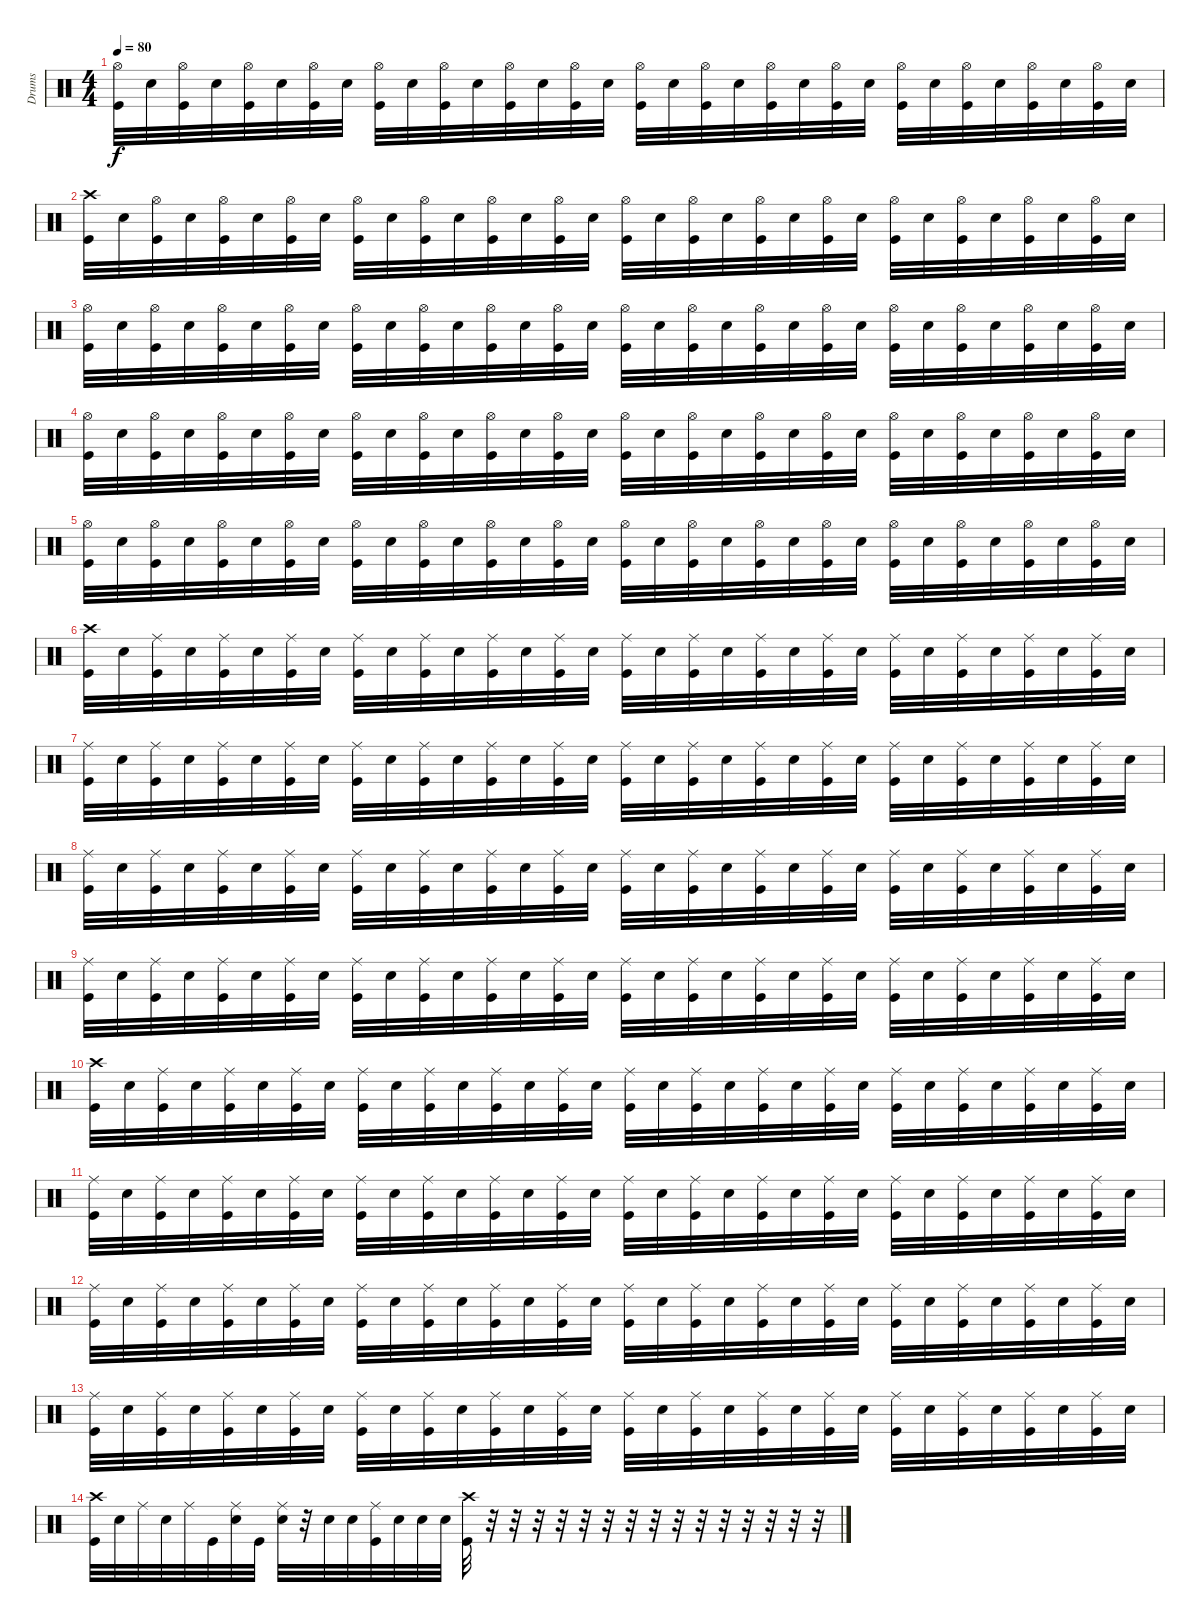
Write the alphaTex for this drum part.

\track ("Drums" "Drums") {instrument percussion}
\staff {score}
\articulation defaults
\ts (4 4)
\tempo 80
\clef neutral
\ks c
("Hi-Hat (open)" "Kick (hit)").32{dy f} "Snare (hit) 2".32 ("Hi-Hat (open)" "Kick (hit)").32 "Snare (hit) 2".32 ("Hi-Hat (open)" "Kick (hit)").32 "Snare (hit) 2".32 ("Hi-Hat (open)" "Kick (hit)").32 "Snare (hit) 2".32 ("Hi-Hat (open)" "Kick (hit)").32 "Snare (hit) 2".32 ("Hi-Hat (open)" "Kick (hit)").32 "Snare (hit) 2".32 ("Hi-Hat (open)" "Kick (hit)").32 "Snare (hit) 2".32 ("Hi-Hat (open)" "Kick (hit)").32 "Snare (hit) 2".32 ("Hi-Hat (open)" "Kick (hit)").32 "Snare (hit) 2".32 ("Hi-Hat (open)" "Kick (hit)").32 "Snare (hit) 2".32 ("Hi-Hat (open)" "Kick (hit)").32 "Snare (hit) 2".32 ("Hi-Hat (open)" "Kick (hit)").32 "Snare (hit) 2".32 ("Hi-Hat (open)" "Kick (hit)").32 "Snare (hit) 2".32 ("Hi-Hat (open)" "Kick (hit)").32 "Snare (hit) 2".32 ("Hi-Hat (open)" "Kick (hit)").32 "Snare (hit) 2".32 ("Hi-Hat (open)" "Kick (hit)").32 "Snare (hit) 2".32 |
("Crash high (hit)" "Kick (hit)").32 "Snare (hit) 2".32 ("Hi-Hat (open)" "Kick (hit)").32 "Snare (hit) 2".32 ("Hi-Hat (open)" "Kick (hit)").32 "Snare (hit) 2".32 ("Hi-Hat (open)" "Kick (hit)").32 "Snare (hit) 2".32 ("Hi-Hat (open)" "Kick (hit)").32 "Snare (hit) 2".32 ("Hi-Hat (open)" "Kick (hit)").32 "Snare (hit) 2".32 ("Hi-Hat (open)" "Kick (hit)").32 "Snare (hit) 2".32 ("Hi-Hat (open)" "Kick (hit)").32 "Snare (hit) 2".32 ("Hi-Hat (open)" "Kick (hit)").32 "Snare (hit) 2".32 ("Hi-Hat (open)" "Kick (hit)").32 "Snare (hit) 2".32 ("Hi-Hat (open)" "Kick (hit)").32 "Snare (hit) 2".32 ("Hi-Hat (open)" "Kick (hit)").32 "Snare (hit) 2".32 ("Hi-Hat (open)" "Kick (hit)").32 "Snare (hit) 2".32 ("Hi-Hat (open)" "Kick (hit)").32 "Snare (hit) 2".32 ("Hi-Hat (open)" "Kick (hit)").32 "Snare (hit) 2".32 ("Hi-Hat (open)" "Kick (hit)").32 "Snare (hit) 2".32 |
("Hi-Hat (open)" "Kick (hit)").32 "Snare (hit) 2".32 ("Hi-Hat (open)" "Kick (hit)").32 "Snare (hit) 2".32 ("Hi-Hat (open)" "Kick (hit)").32 "Snare (hit) 2".32 ("Hi-Hat (open)" "Kick (hit)").32 "Snare (hit) 2".32 ("Hi-Hat (open)" "Kick (hit)").32 "Snare (hit) 2".32 ("Hi-Hat (open)" "Kick (hit)").32 "Snare (hit) 2".32 ("Hi-Hat (open)" "Kick (hit)").32 "Snare (hit) 2".32 ("Hi-Hat (open)" "Kick (hit)").32 "Snare (hit) 2".32 ("Hi-Hat (open)" "Kick (hit)").32 "Snare (hit) 2".32 ("Hi-Hat (open)" "Kick (hit)").32 "Snare (hit) 2".32 ("Hi-Hat (open)" "Kick (hit)").32 "Snare (hit) 2".32 ("Hi-Hat (open)" "Kick (hit)").32 "Snare (hit) 2".32 ("Hi-Hat (open)" "Kick (hit)").32 "Snare (hit) 2".32 ("Hi-Hat (open)" "Kick (hit)").32 "Snare (hit) 2".32 ("Hi-Hat (open)" "Kick (hit)").32 "Snare (hit) 2".32 ("Hi-Hat (open)" "Kick (hit)").32 "Snare (hit) 2".32 |
("Hi-Hat (open)" "Kick (hit)").32 "Snare (hit) 2".32 ("Hi-Hat (open)" "Kick (hit)").32 "Snare (hit) 2".32 ("Hi-Hat (open)" "Kick (hit)").32 "Snare (hit) 2".32 ("Hi-Hat (open)" "Kick (hit)").32 "Snare (hit) 2".32 ("Hi-Hat (open)" "Kick (hit)").32 "Snare (hit) 2".32 ("Hi-Hat (open)" "Kick (hit)").32 "Snare (hit) 2".32 ("Hi-Hat (open)" "Kick (hit)").32 "Snare (hit) 2".32 ("Hi-Hat (open)" "Kick (hit)").32 "Snare (hit) 2".32 ("Hi-Hat (open)" "Kick (hit)").32 "Snare (hit) 2".32 ("Hi-Hat (open)" "Kick (hit)").32 "Snare (hit) 2".32 ("Hi-Hat (open)" "Kick (hit)").32 "Snare (hit) 2".32 ("Hi-Hat (open)" "Kick (hit)").32 "Snare (hit) 2".32 ("Hi-Hat (open)" "Kick (hit)").32 "Snare (hit) 2".32 ("Hi-Hat (open)" "Kick (hit)").32 "Snare (hit) 2".32 ("Hi-Hat (open)" "Kick (hit)").32 "Snare (hit) 2".32 ("Hi-Hat (open)" "Kick (hit)").32 "Snare (hit) 2".32 |
("Hi-Hat (open)" "Kick (hit)").32 "Snare (hit) 2".32 ("Hi-Hat (open)" "Kick (hit)").32 "Snare (hit) 2".32 ("Hi-Hat (open)" "Kick (hit)").32 "Snare (hit) 2".32 ("Hi-Hat (open)" "Kick (hit)").32 "Snare (hit) 2".32 ("Hi-Hat (open)" "Kick (hit)").32 "Snare (hit) 2".32 ("Hi-Hat (open)" "Kick (hit)").32 "Snare (hit) 2".32 ("Hi-Hat (open)" "Kick (hit)").32 "Snare (hit) 2".32 ("Hi-Hat (open)" "Kick (hit)").32 "Snare (hit) 2".32 ("Hi-Hat (open)" "Kick (hit)").32 "Snare (hit) 2".32 ("Hi-Hat (open)" "Kick (hit)").32 "Snare (hit) 2".32 ("Hi-Hat (open)" "Kick (hit)").32 "Snare (hit) 2".32 ("Hi-Hat (open)" "Kick (hit)").32 "Snare (hit) 2".32 ("Hi-Hat (open)" "Kick (hit)").32 "Snare (hit) 2".32 ("Hi-Hat (open)" "Kick (hit)").32 "Snare (hit) 2".32 ("Hi-Hat (open)" "Kick (hit)").32 "Snare (hit) 2".32 ("Hi-Hat (open)" "Kick (hit)").32 "Snare (hit) 2".32 |
("Crash high (hit)" "Kick (hit)").32 "Snare (hit) 2".32 ("Ride (middle)" "Kick (hit)").32 "Snare (hit) 2".32 ("Ride (middle)" "Kick (hit)").32 "Snare (hit) 2".32 ("Ride (middle)" "Kick (hit)").32 "Snare (hit) 2".32 ("Ride (middle)" "Kick (hit)").32 "Snare (hit) 2".32 ("Ride (middle)" "Kick (hit)").32 "Snare (hit) 2".32 ("Ride (middle)" "Kick (hit)").32 "Snare (hit) 2".32 ("Ride (middle)" "Kick (hit)").32 "Snare (hit) 2".32 ("Ride (middle)" "Kick (hit)").32 "Snare (hit) 2".32 ("Ride (middle)" "Kick (hit)").32 "Snare (hit) 2".32 ("Ride (middle)" "Kick (hit)").32 "Snare (hit) 2".32 ("Ride (middle)" "Kick (hit)").32 "Snare (hit) 2".32 ("Ride (middle)" "Kick (hit)").32 "Snare (hit) 2".32 ("Ride (middle)" "Kick (hit)").32 "Snare (hit) 2".32 ("Ride (middle)" "Kick (hit)").32 "Snare (hit) 2".32 ("Ride (middle)" "Kick (hit)").32 "Snare (hit) 2".32 |
("Ride (middle)" "Kick (hit)").32 "Snare (hit) 2".32 ("Ride (middle)" "Kick (hit)").32 "Snare (hit) 2".32 ("Ride (middle)" "Kick (hit)").32 "Snare (hit) 2".32 ("Ride (middle)" "Kick (hit)").32 "Snare (hit) 2".32 ("Ride (middle)" "Kick (hit)").32 "Snare (hit) 2".32 ("Ride (middle)" "Kick (hit)").32 "Snare (hit) 2".32 ("Ride (middle)" "Kick (hit)").32 "Snare (hit) 2".32 ("Ride (middle)" "Kick (hit)").32 "Snare (hit) 2".32 ("Ride (middle)" "Kick (hit)").32 "Snare (hit) 2".32 ("Ride (middle)" "Kick (hit)").32 "Snare (hit) 2".32 ("Ride (middle)" "Kick (hit)").32 "Snare (hit) 2".32 ("Ride (middle)" "Kick (hit)").32 "Snare (hit) 2".32 ("Ride (middle)" "Kick (hit)").32 "Snare (hit) 2".32 ("Ride (middle)" "Kick (hit)").32 "Snare (hit) 2".32 ("Ride (middle)" "Kick (hit)").32 "Snare (hit) 2".32 ("Ride (middle)" "Kick (hit)").32 "Snare (hit) 2".32 |
("Ride (middle)" "Kick (hit)").32 "Snare (hit) 2".32 ("Ride (middle)" "Kick (hit)").32 "Snare (hit) 2".32 ("Ride (middle)" "Kick (hit)").32 "Snare (hit) 2".32 ("Ride (middle)" "Kick (hit)").32 "Snare (hit) 2".32 ("Ride (middle)" "Kick (hit)").32 "Snare (hit) 2".32 ("Ride (middle)" "Kick (hit)").32 "Snare (hit) 2".32 ("Ride (middle)" "Kick (hit)").32 "Snare (hit) 2".32 ("Ride (middle)" "Kick (hit)").32 "Snare (hit) 2".32 ("Ride (middle)" "Kick (hit)").32 "Snare (hit) 2".32 ("Ride (middle)" "Kick (hit)").32 "Snare (hit) 2".32 ("Ride (middle)" "Kick (hit)").32 "Snare (hit) 2".32 ("Ride (middle)" "Kick (hit)").32 "Snare (hit) 2".32 ("Ride (middle)" "Kick (hit)").32 "Snare (hit) 2".32 ("Ride (middle)" "Kick (hit)").32 "Snare (hit) 2".32 ("Ride (middle)" "Kick (hit)").32 "Snare (hit) 2".32 ("Ride (middle)" "Kick (hit)").32 "Snare (hit) 2".32 |
("Ride (middle)" "Kick (hit)").32 "Snare (hit) 2".32 ("Ride (middle)" "Kick (hit)").32 "Snare (hit) 2".32 ("Ride (middle)" "Kick (hit)").32 "Snare (hit) 2".32 ("Ride (middle)" "Kick (hit)").32 "Snare (hit) 2".32 ("Ride (middle)" "Kick (hit)").32 "Snare (hit) 2".32 ("Ride (middle)" "Kick (hit)").32 "Snare (hit) 2".32 ("Ride (middle)" "Kick (hit)").32 "Snare (hit) 2".32 ("Ride (middle)" "Kick (hit)").32 "Snare (hit) 2".32 ("Ride (middle)" "Kick (hit)").32 "Snare (hit) 2".32 ("Ride (middle)" "Kick (hit)").32 "Snare (hit) 2".32 ("Ride (middle)" "Kick (hit)").32 "Snare (hit) 2".32 ("Ride (middle)" "Kick (hit)").32 "Snare (hit) 2".32 ("Ride (middle)" "Kick (hit)").32 "Snare (hit) 2".32 ("Ride (middle)" "Kick (hit)").32 "Snare (hit) 2".32 ("Ride (middle)" "Kick (hit)").32 "Snare (hit) 2".32 ("Ride (middle)" "Kick (hit)").32 "Snare (hit) 2".32 |
("Crash high (hit)" "Kick (hit)").32 "Snare (hit) 2".32 ("Ride (middle)" "Kick (hit)").32 "Snare (hit) 2".32 ("Ride (middle)" "Kick (hit)").32 "Snare (hit) 2".32 ("Ride (middle)" "Kick (hit)").32 "Snare (hit) 2".32 ("Ride (middle)" "Kick (hit)").32 "Snare (hit) 2".32 ("Ride (middle)" "Kick (hit)").32 "Snare (hit) 2".32 ("Ride (middle)" "Kick (hit)").32 "Snare (hit) 2".32 ("Ride (middle)" "Kick (hit)").32 "Snare (hit) 2".32 ("Ride (middle)" "Kick (hit)").32 "Snare (hit) 2".32 ("Ride (middle)" "Kick (hit)").32 "Snare (hit) 2".32 ("Ride (middle)" "Kick (hit)").32 "Snare (hit) 2".32 ("Ride (middle)" "Kick (hit)").32 "Snare (hit) 2".32 ("Ride (middle)" "Kick (hit)").32 "Snare (hit) 2".32 ("Ride (middle)" "Kick (hit)").32 "Snare (hit) 2".32 ("Ride (middle)" "Kick (hit)").32 "Snare (hit) 2".32 ("Ride (middle)" "Kick (hit)").32 "Snare (hit) 2".32 |
("Ride (middle)" "Kick (hit)").32 "Snare (hit) 2".32 ("Ride (middle)" "Kick (hit)").32 "Snare (hit) 2".32 ("Ride (middle)" "Kick (hit)").32 "Snare (hit) 2".32 ("Ride (middle)" "Kick (hit)").32 "Snare (hit) 2".32 ("Ride (middle)" "Kick (hit)").32 "Snare (hit) 2".32 ("Ride (middle)" "Kick (hit)").32 "Snare (hit) 2".32 ("Ride (middle)" "Kick (hit)").32 "Snare (hit) 2".32 ("Ride (middle)" "Kick (hit)").32 "Snare (hit) 2".32 ("Ride (middle)" "Kick (hit)").32 "Snare (hit) 2".32 ("Ride (middle)" "Kick (hit)").32 "Snare (hit) 2".32 ("Ride (middle)" "Kick (hit)").32 "Snare (hit) 2".32 ("Ride (middle)" "Kick (hit)").32 "Snare (hit) 2".32 ("Ride (middle)" "Kick (hit)").32 "Snare (hit) 2".32 ("Ride (middle)" "Kick (hit)").32 "Snare (hit) 2".32 ("Ride (middle)" "Kick (hit)").32 "Snare (hit) 2".32 ("Ride (middle)" "Kick (hit)").32 "Snare (hit) 2".32 |
("Ride (middle)" "Kick (hit)").32 "Snare (hit) 2".32 ("Ride (middle)" "Kick (hit)").32 "Snare (hit) 2".32 ("Ride (middle)" "Kick (hit)").32 "Snare (hit) 2".32 ("Ride (middle)" "Kick (hit)").32 "Snare (hit) 2".32 ("Ride (middle)" "Kick (hit)").32 "Snare (hit) 2".32 ("Ride (middle)" "Kick (hit)").32 "Snare (hit) 2".32 ("Ride (middle)" "Kick (hit)").32 "Snare (hit) 2".32 ("Ride (middle)" "Kick (hit)").32 "Snare (hit) 2".32 ("Ride (middle)" "Kick (hit)").32 "Snare (hit) 2".32 ("Ride (middle)" "Kick (hit)").32 "Snare (hit) 2".32 ("Ride (middle)" "Kick (hit)").32 "Snare (hit) 2".32 ("Ride (middle)" "Kick (hit)").32 "Snare (hit) 2".32 ("Ride (middle)" "Kick (hit)").32 "Snare (hit) 2".32 ("Ride (middle)" "Kick (hit)").32 "Snare (hit) 2".32 ("Ride (middle)" "Kick (hit)").32 "Snare (hit) 2".32 ("Ride (middle)" "Kick (hit)").32 "Snare (hit) 2".32 |
("Ride (middle)" "Kick (hit)").32 "Snare (hit) 2".32 ("Ride (middle)" "Kick (hit)").32 "Snare (hit) 2".32 ("Ride (middle)" "Kick (hit)").32 "Snare (hit) 2".32 ("Ride (middle)" "Kick (hit)").32 "Snare (hit) 2".32 ("Ride (middle)" "Kick (hit)").32 "Snare (hit) 2".32 ("Ride (middle)" "Kick (hit)").32 "Snare (hit) 2".32 ("Ride (middle)" "Kick (hit)").32 "Snare (hit) 2".32 ("Ride (middle)" "Kick (hit)").32 "Snare (hit) 2".32 ("Ride (middle)" "Kick (hit)").32 "Snare (hit) 2".32 ("Ride (middle)" "Kick (hit)").32 "Snare (hit) 2".32 ("Ride (middle)" "Kick (hit)").32 "Snare (hit) 2".32 ("Ride (middle)" "Kick (hit)").32 "Snare (hit) 2".32 ("Ride (middle)" "Kick (hit)").32 "Snare (hit) 2".32 ("Ride (middle)" "Kick (hit)").32 "Snare (hit) 2".32 ("Ride (middle)" "Kick (hit)").32 "Snare (hit) 2".32 ("Ride (middle)" "Kick (hit)").32 "Snare (hit) 2".32 |
("Crash high (hit)" "Kick (hit)").32 "Snare (hit) 2".32 "Ride (middle)".32 "Snare (hit) 2".32 "Ride (middle)".32 "Kick (hit)".32 ("Ride (middle)" "Snare (hit) 2").32 "Kick (hit)".32 ("Ride (middle)" "Snare (hit) 2").32 r.32 "Snare (hit) 2".32 "Snare (hit) 2".32 ("Ride (middle)" "Kick (hit)").32 "Snare (hit) 2".32 "Snare (hit) 2".32 "Snare (hit) 2".32 ("Crash high (hit)" "Kick (hit)").32 r.32 r.32 r.32 r.32 r.32 r.32 r.32 r.32 r.32 r.32 r.32 r.32 r.32 r.32 r.32
